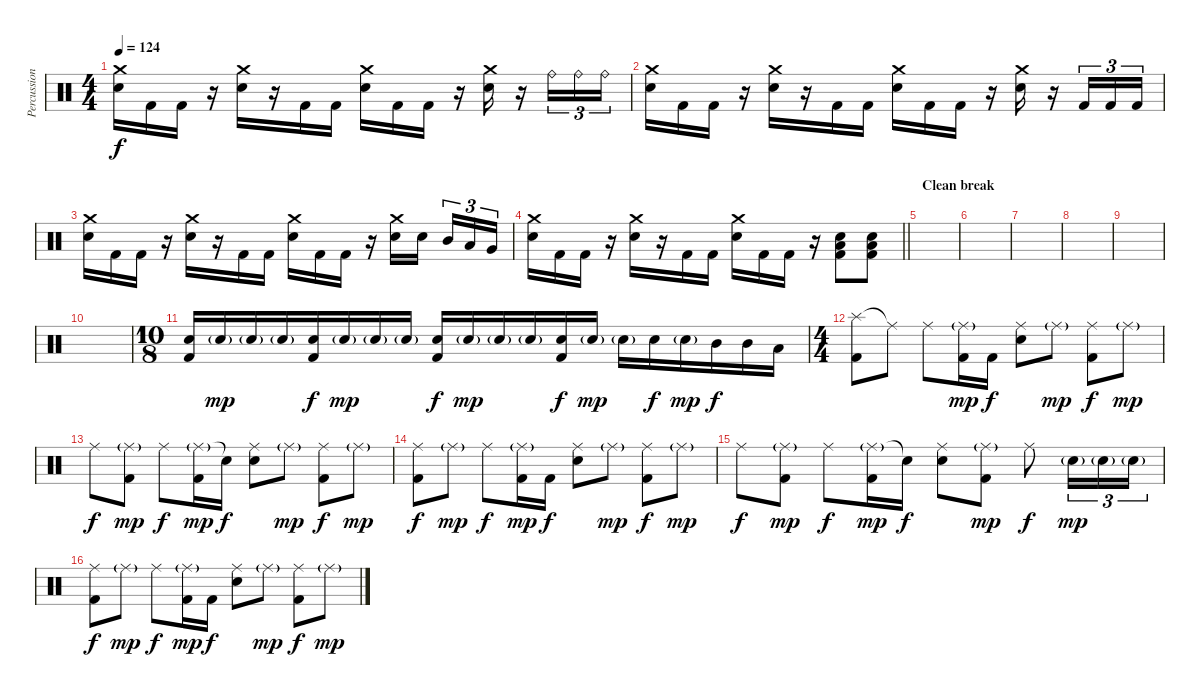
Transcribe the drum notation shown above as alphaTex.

\track ("Percussion" "Percussion") {instrument percussion}
\staff {score}
\articulation defaults
\ts (4 4)
\tempo 124
\clef neutral
\ks c
("Crash medium (hit)" "Electric Snare (hit)").16{dy f} "Kick (hit) 2".16 "Kick (hit) 2".16 r.16 ("Crash medium (hit)" "Electric Snare (hit)").16 r.16 "Kick (hit) 2".16 "Kick (hit) 2".16 ("Crash medium (hit)" "Electric Snare (hit)").16 "Kick (hit) 2".16 "Kick (hit) 2".16 r.16 ("Crash medium (hit)" "Electric Snare (hit)").16 r.16 "Ride (bell)".16{tu (3 2)} "Ride (bell)".16{tu (3 2)} "Ride (bell)".16{tu (3 2)} |
("Crash medium (hit)" "Electric Snare (hit)").16 "Kick (hit) 2".16 "Kick (hit) 2".16 r.16 ("Crash medium (hit)" "Electric Snare (hit)").16 r.16 "Kick (hit) 2".16 "Kick (hit) 2".16 ("Crash medium (hit)" "Electric Snare (hit)").16 "Kick (hit) 2".16 "Kick (hit) 2".16 r.16 ("Crash medium (hit)" "Electric Snare (hit)").16 r.16 "Kick (hit) 2".16{tu (3 2)} "Kick (hit) 2".16{tu (3 2)} "Kick (hit) 2".16{tu (3 2)} |
("Crash medium (hit)" "Electric Snare (hit)").16 "Kick (hit) 2".16 "Kick (hit) 2".16 r.16 ("Crash medium (hit)" "Electric Snare (hit)").16 r.16 "Kick (hit) 2".16 "Kick (hit) 2".16 ("Crash medium (hit)" "Electric Snare (hit)").16 "Kick (hit) 2".16 "Kick (hit) 2".16 r.16 ("Crash medium (hit)" "Electric Snare (hit)").16 "Electric Snare (hit)".16{beam splitsecondary} "Mid Tom (hit)".16{tu (3 2)} "Low Tom (hit)".16{tu (3 2)} "Very Low Tom (hit)".16{tu (3 2)} |
\barLineRight lightlight
("Crash medium (hit)" "Electric Snare (hit)").16 "Kick (hit) 2".16 "Kick (hit) 2".16 r.16 ("Crash medium (hit)" "Electric Snare (hit)").16 r.16 "Kick (hit) 2".16 "Kick (hit) 2".16 ("Crash medium (hit)" "Electric Snare (hit)").16 "Kick (hit) 2".16 "Kick (hit) 2".16 r.16 ("Electric Snare (hit)" "Low Tom (hit)" "Kick (hit) 2").8 ("Electric Snare (hit)" "Low Tom (hit)" "Kick (hit) 2").8 |
\section ("" "Clean break")
|
|
|
|
|
|
\ts (10 8)
("Electric Snare (hit)" "Kick (hit) 2").16 "Electric Snare (hit)"{g}.16{dy mp} "Electric Snare (hit)"{g}.16 "Electric Snare (hit)"{g}.16 ("Electric Snare (hit)" "Kick (hit) 2").16{dy f} "Electric Snare (hit)"{g}.16{dy mp} "Electric Snare (hit)"{g}.16 "Electric Snare (hit)"{g}.16 ("Electric Snare (hit)" "Kick (hit) 2").16{dy f} "Electric Snare (hit)"{g}.16{dy mp} "Electric Snare (hit)"{g}.16 "Electric Snare (hit)"{g}.16 ("Electric Snare (hit)" "Kick (hit) 2").16{dy f} "Electric Snare (hit)"{g}.16{dy mp} "Electric Snare (hit)"{g}.16 "Electric Snare (hit)".16{dy f} "Electric Snare (hit)"{g}.16{dy mp} "Mid Tom (hit)".16{dy f} "Mid Tom (hit)".16 "Low Tom (hit)".16 |
\ts (4 4)
("Splash (hit)" "Kick (hit) 2").8 "Ride (middle)"{t}.8 "Ride (middle)".8 ("Ride (middle)"{g} "Kick (hit) 2").16{dy mp} "Kick (hit) 2".16{dy f} ("Ride (middle)" "Electric Snare (hit)").8 "Ride (middle)"{g}.8{dy mp} ("Ride (middle)" "Kick (hit) 2").8{dy f} "Ride (middle)"{g}.8{dy mp} |
"Ride (middle)".8{dy f} ("Ride (middle)"{g} "Kick (hit) 2").8{dy mp} "Ride (middle)".8{dy f} ("Ride (middle)"{g} "Kick (hit) 2").16{dy mp} "Snare (hit)"{t}.16{dy f} ("Ride (middle)" "Electric Snare (hit)").8 "Ride (middle)"{g}.8{dy mp} ("Ride (middle)" "Kick (hit) 2").8{dy f} "Ride (middle)"{g}.8{dy mp} |
("Ride (middle)" "Kick (hit) 2").8{dy f} "Ride (middle)"{g}.8{dy mp} "Ride (middle)".8{dy f} ("Ride (middle)"{g} "Kick (hit) 2").16{dy mp} "Kick (hit) 2".16{dy f} ("Ride (middle)" "Electric Snare (hit)").8 "Ride (middle)"{g}.8{dy mp} ("Ride (middle)" "Kick (hit) 2").8{dy f} "Ride (middle)"{g}.8{dy mp} |
"Ride (middle)".8{dy f} ("Ride (middle)"{g} "Kick (hit) 2").8{dy mp} "Ride (middle)".8{dy f} ("Ride (middle)"{g} "Kick (hit) 2").16{dy mp} "Snare (hit)"{t}.16{dy f} ("Ride (middle)" "Electric Snare (hit)").8 ("Ride (middle)"{g} "Kick (hit) 2").8{dy mp} "Ride (middle)".8{dy f} "Electric Snare (hit)"{g}.16{tu (3 2) dy mp} "Electric Snare (hit)"{g}.16{tu (3 2)} "Electric Snare (hit)"{g}.16{tu (3 2)} |
("Ride (middle)" "Kick (hit) 2").8{dy f} "Ride (middle)"{g}.8{dy mp} "Ride (middle)".8{dy f} ("Ride (middle)"{g} "Kick (hit) 2").16{dy mp} "Kick (hit) 2".16{dy f} ("Ride (middle)" "Electric Snare (hit)").8 "Ride (middle)"{g}.8{dy mp} ("Ride (middle)" "Kick (hit) 2").8{dy f} "Ride (middle)"{g}.8{dy mp}
